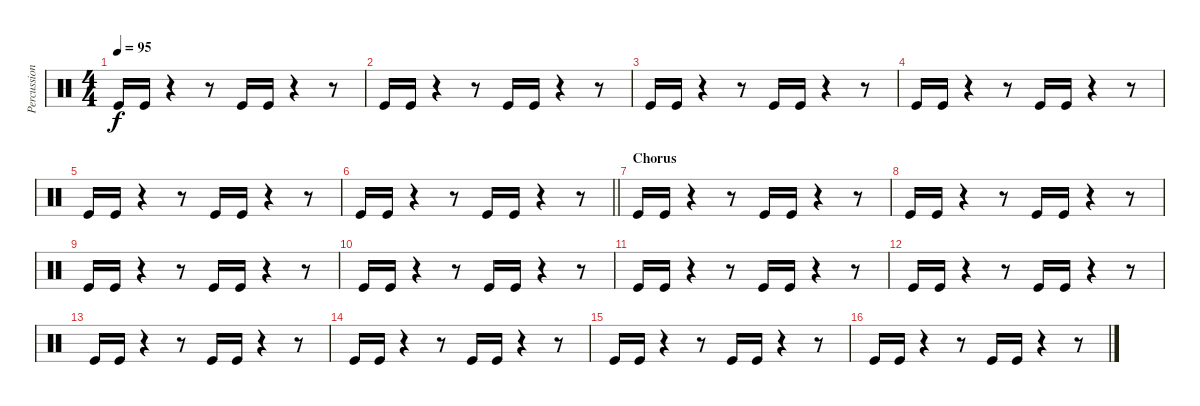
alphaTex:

\track ("Percussion" "Percussion") {instrument percussion}
\staff {score}
\articulation defaults
\ts (4 4)
\tempo 95
\clef neutral
\ks c "Kick (hit)".16{dy f} "Kick (hit)".16
r.4 r.8 "Kick (hit)".16 "Kick (hit)".16 r.4 r.8 |
"Kick (hit)".16 "Kick (hit)".16 r.4 r.8 "Kick (hit)".16 "Kick (hit)".16 r.4 r.8 |
"Kick (hit)".16 "Kick (hit)".16 r.4 r.8 "Kick (hit)".16 "Kick (hit)".16 r.4 r.8 |
"Kick (hit)".16 "Kick (hit)".16 r.4 r.8 "Kick (hit)".16 "Kick (hit)".16 r.4 r.8 |
"Kick (hit)".16 "Kick (hit)".16 r.4 r.8 "Kick (hit)".16 "Kick (hit)".16 r.4 r.8 |
\barLineRight lightlight "Kick (hit)".16 "Kick (hit)".16
r.4 r.8 "Kick (hit)".16 "Kick (hit)".16 r.4 r.8 |
\section ("" "Chorus")
"Kick (hit)".16 "Kick (hit)".16 r.4 r.8 "Kick (hit)".16 "Kick (hit)".16 r.4 r.8 |
"Kick (hit)".16 "Kick (hit)".16 r.4 r.8 "Kick (hit)".16 "Kick (hit)".16 r.4 r.8 |
"Kick (hit)".16 "Kick (hit)".16 r.4 r.8 "Kick (hit)".16 "Kick (hit)".16 r.4 r.8 |
"Kick (hit)".16 "Kick (hit)".16 r.4 r.8 "Kick (hit)".16 "Kick (hit)".16 r.4 r.8 |
"Kick (hit)".16 "Kick (hit)".16 r.4 r.8 "Kick (hit)".16 "Kick (hit)".16 r.4 r.8 |
"Kick (hit)".16 "Kick (hit)".16 r.4 r.8 "Kick (hit)".16 "Kick (hit)".16 r.4 r.8 |
"Kick (hit)".16 "Kick (hit)".16 r.4 r.8 "Kick (hit)".16 "Kick (hit)".16 r.4 r.8 |
"Kick (hit)".16 "Kick (hit)".16 r.4 r.8 "Kick (hit)".16 "Kick (hit)".16 r.4 r.8 |
"Kick (hit)".16 "Kick (hit)".16 r.4 r.8 "Kick (hit)".16 "Kick (hit)".16 r.4 r.8 |
"Kick (hit)".16 "Kick (hit)".16 r.4 r.8 "Kick (hit)".16 "Kick (hit)".16 r.4 r.8
